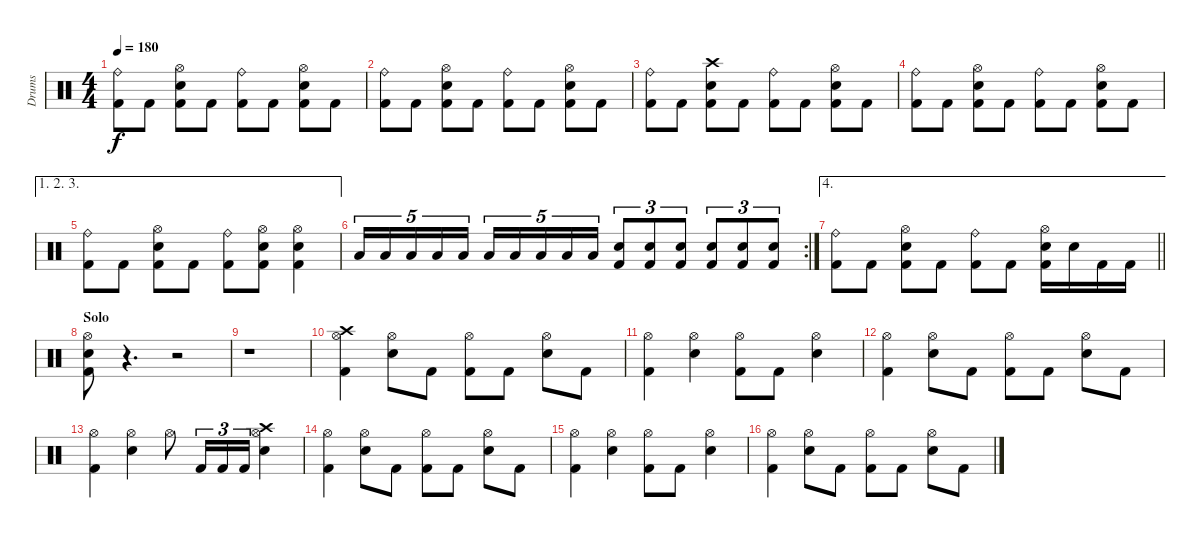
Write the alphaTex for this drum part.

\track ("Drums" "Drums") {instrument percussion}
\staff {score}
\articulation defaults
\ts (4 4)
\tempo 180
\clef neutral
\ks c
("Ride (bell)" "Kick (hit) 2").8{dy f} "Kick (hit) 2".8 ("Snare (hit) 2" "Hi-Hat (open)" "Kick (hit) 2").8 "Kick (hit) 2".8 ("Ride (bell)" "Kick (hit) 2").8 "Kick (hit) 2".8 ("Snare (hit) 2" "Hi-Hat (open)" "Kick (hit) 2").8 "Kick (hit) 2".8 |
("Ride (bell)" "Kick (hit) 2").8 "Kick (hit) 2".8 ("Snare (hit) 2" "Hi-Hat (open)" "Kick (hit) 2").8 "Kick (hit) 2".8 ("Ride (bell)" "Kick (hit) 2").8 "Kick (hit) 2".8 ("Snare (hit) 2" "Hi-Hat (open)" "Kick (hit) 2").8 "Kick (hit) 2".8 |
("Ride (bell)" "Kick (hit) 2").8 "Kick (hit) 2".8 ("Snare (hit) 2" "Crash high (hit)" "Kick (hit) 2").8 "Kick (hit) 2".8 ("Ride (bell)" "Kick (hit) 2").8 "Kick (hit) 2".8 ("Snare (hit) 2" "Hi-Hat (open)" "Kick (hit) 2").8 "Kick (hit) 2".8 |
("Ride (bell)" "Kick (hit) 2").8 "Kick (hit) 2".8 ("Snare (hit) 2" "Hi-Hat (open)" "Kick (hit) 2").8 "Kick (hit) 2".8 ("Ride (bell)" "Kick (hit) 2").8 "Kick (hit) 2".8 ("Snare (hit) 2" "Hi-Hat (open)" "Kick (hit) 2").8 "Kick (hit) 2".8 |
\ae (1 2 3)
("Ride (bell)" "Kick (hit) 2").8 "Kick (hit) 2".8 ("Snare (hit) 2" "Hi-Hat (open)" "Kick (hit) 2").8 "Kick (hit) 2".8 ("Ride (bell)" "Kick (hit) 2").8 ("Snare (hit) 2" "Hi-Hat (open)" "Kick (hit) 2").8 ("Snare (hit) 2" "Hi-Hat (open)" "Kick (hit) 2").4 |
\rc 2 "Low Floor Tom (hit)".16{tu (5 4)} "Low Floor Tom (hit)".16{tu (5 4)} "Low Floor Tom (hit)".16{tu (5 4)} "Low Floor Tom (hit)".16{tu (5 4)} "Low Floor Tom (hit)".16{tu (5 4)} "Low Tom (hit)".16{tu (5 4)} "Low Tom (hit)".16{tu (5 4)} "Low Tom (hit)".16{tu (5 4)} "Low Tom (hit)".16{tu (5 4)} "Low Tom (hit)".16{tu (5 4)}
("Kick (hit) 2" "Snare (hit) 2").8{tu (3 2)} ("Kick (hit) 2" "Snare (hit) 2").8{tu (3 2)} ("Kick (hit) 2" "Snare (hit) 2").8{tu (3 2)} ("Kick (hit) 2" "Snare (hit) 2").8{tu (3 2)} ("Kick (hit) 2" "Snare (hit) 2").8{tu (3 2)} ("Kick (hit) 2" "Snare (hit) 2").8{tu (3 2)} |
\ae 4
\barLineRight lightlight
("Ride (bell)" "Kick (hit) 2").8 "Kick (hit) 2".8 ("Snare (hit) 2" "Hi-Hat (open)" "Kick (hit) 2").8 "Kick (hit) 2".8 ("Ride (bell)" "Kick (hit) 2").8 "Kick (hit) 2".8 ("Snare (hit) 2" "Hi-Hat (open)" "Kick (hit) 2").16 "Snare (hit) 2".16 "Kick (hit) 2".16 "Kick (hit) 2".16 |
\section ("" "Solo")
("Snare (hit) 2" "Hi-Hat (open)" "Kick (hit) 2").8 r.4{d} r.2 |
r.1 |
("Kick (hit) 2" "Hi-Hat (open)" "Crash high (hit)").4 ("Snare (hit) 2" "Hi-Hat (open)").8 "Kick (hit) 2".8 ("Kick (hit) 2" "Hi-Hat (open)").8 "Kick (hit) 2".8 ("Snare (hit) 2" "Hi-Hat (open)").8 "Kick (hit) 2".8 |
("Kick (hit) 2" "Hi-Hat (open)").4 ("Snare (hit) 2" "Hi-Hat (open)").4 ("Kick (hit) 2" "Hi-Hat (open)").8 "Kick (hit) 2".8 ("Snare (hit) 2" "Hi-Hat (open)").4 |
("Kick (hit) 2" "Hi-Hat (open)").4 ("Snare (hit) 2" "Hi-Hat (open)").8 "Kick (hit) 2".8 ("Kick (hit) 2" "Hi-Hat (open)").8 "Kick (hit) 2".8 ("Snare (hit) 2" "Hi-Hat (open)").8 "Kick (hit) 2".8 |
("Kick (hit) 2" "Hi-Hat (open)").4 ("Snare (hit) 2" "Hi-Hat (open)").4 "Hi-Hat (open)".8 "Kick (hit) 2".16{tu (3 2)} "Kick (hit) 2".16{tu (3 2)} "Kick (hit) 2".16{tu (3 2)} ("Snare (hit) 2" "Hi-Hat (open)" "Crash high (hit)").4 |
("Kick (hit) 2" "Hi-Hat (open)").4 ("Snare (hit) 2" "Hi-Hat (open)").8 "Kick (hit) 2".8 ("Kick (hit) 2" "Hi-Hat (open)").8 "Kick (hit) 2".8 ("Snare (hit) 2" "Hi-Hat (open)").8 "Kick (hit) 2".8 |
("Kick (hit) 2" "Hi-Hat (open)").4 ("Snare (hit) 2" "Hi-Hat (open)").4 ("Kick (hit) 2" "Hi-Hat (open)").8 "Kick (hit) 2".8 ("Snare (hit) 2" "Hi-Hat (open)").4 |
("Kick (hit) 2" "Hi-Hat (open)").4 ("Snare (hit) 2" "Hi-Hat (open)").8 "Kick (hit) 2".8 ("Kick (hit) 2" "Hi-Hat (open)").8 "Kick (hit) 2".8 ("Snare (hit) 2" "Hi-Hat (open)").8 "Kick (hit) 2".8
